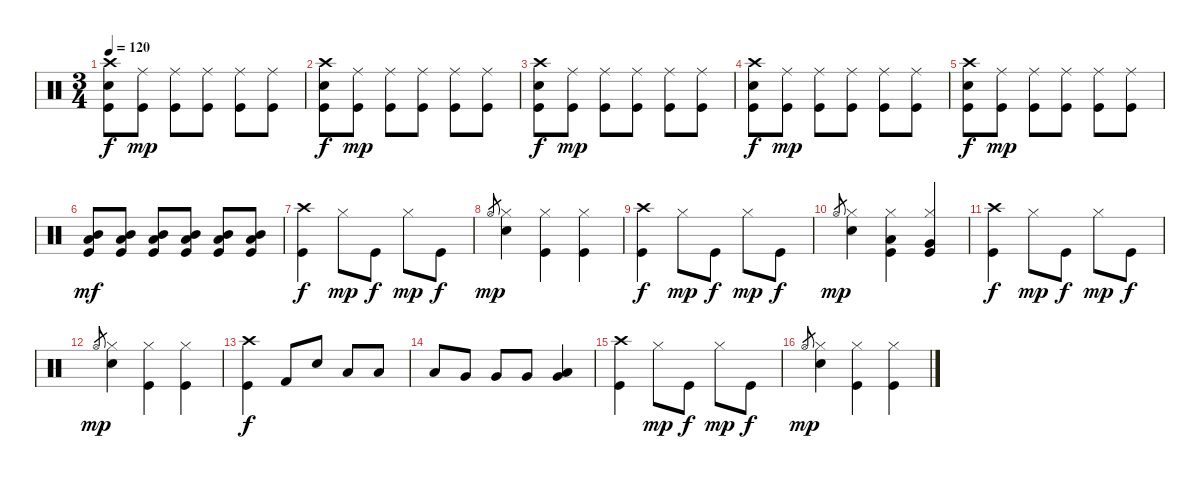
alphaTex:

\track "" {instrument percussion}
\staff {score}
\articulation defaults
\ts (3 4)
\tempo 120
\clef neutral
\ks c
("Kick (hit)" "Electric Snare (hit)" "Crash high (hit)").8{dy f} ("Kick (hit)" "Ride (middle)").8{dy mp} ("Kick (hit)" "Ride (middle)").8 ("Kick (hit)" "Ride (middle)").8 ("Kick (hit)" "Ride (middle)").8 ("Kick (hit)" "Ride (middle)").8 |
("Kick (hit)" "Electric Snare (hit)" "Crash high (hit)").8{dy f} ("Kick (hit)" "Ride (middle)").8{dy mp} ("Kick (hit)" "Ride (middle)").8 ("Kick (hit)" "Ride (middle)").8 ("Kick (hit)" "Ride (middle)").8 ("Kick (hit)" "Ride (middle)").8 |
("Kick (hit)" "Electric Snare (hit)" "Crash high (hit)").8{dy f} ("Kick (hit)" "Ride (middle)").8{dy mp} ("Kick (hit)" "Ride (middle)").8 ("Kick (hit)" "Ride (middle)").8 ("Kick (hit)" "Ride (middle)").8 ("Kick (hit)" "Ride (middle)").8 |
("Kick (hit)" "Electric Snare (hit)" "Crash high (hit)").8{dy f} ("Kick (hit)" "Ride (middle)").8{dy mp} ("Kick (hit)" "Ride (middle)").8 ("Kick (hit)" "Ride (middle)").8 ("Kick (hit)" "Ride (middle)").8 ("Kick (hit)" "Ride (middle)").8 |
("Kick (hit)" "Electric Snare (hit)" "Crash high (hit)").8{dy f} ("Kick (hit)" "Ride (middle)").8{dy mp} ("Kick (hit)" "Ride (middle)").8 ("Kick (hit)" "Ride (middle)").8 ("Kick (hit)" "Ride (middle)").8 ("Kick (hit)" "Ride (middle)").8 |
("Low Tom (hit)" "Mid Tom (hit)" "Kick (hit)").8{dy mf} ("Low Tom (hit)" "Mid Tom (hit)" "Kick (hit)").8 ("Low Tom (hit)" "Mid Tom (hit)" "Kick (hit)").8 ("Low Tom (hit)" "Mid Tom (hit)" "Kick (hit)").8 ("Low Tom (hit)" "Mid Tom (hit)" "Kick (hit)").8 ("Low Tom (hit)" "Mid Tom (hit)" "Kick (hit)").8 |
("Crash high (hit)" "Kick (hit)").4{dy f} "Hi-Hat (closed)".8{dy mp} "Kick (hit)".8{dy f} "Hi-Hat (closed)".8{dy mp} "Kick (hit)".8{dy f} |
"Hi-Hat (open)".8{gr dy mp} ("Hi-Hat (closed)" "Electric Snare (hit)").4 ("Hi-Hat (closed)" "Kick (hit)").4 ("Hi-Hat (closed)" "Kick (hit)").4 |
("Crash high (hit)" "Kick (hit)").4{dy f} "Hi-Hat (closed)".8{dy mp} "Kick (hit)".8{dy f} "Hi-Hat (closed)".8{dy mp} "Kick (hit)".8{dy f} |
"Hi-Hat (open)".8{gr dy mp} ("Hi-Hat (closed)" "Electric Snare (hit)").4 ("Hi-Hat (closed)" "Low Tom (hit)" "Kick (hit)").4 ("Hi-Hat (closed)" "Very Low Tom (hit)" "Kick (hit)").4 |
("Crash high (hit)" "Kick (hit)").4{dy f} "Hi-Hat (closed)".8{dy mp} "Kick (hit)".8{dy f} "Hi-Hat (closed)".8{dy mp} "Kick (hit)".8{dy f} |
"Hi-Hat (open)".8{gr dy mp} ("Hi-Hat (closed)" "Electric Snare (hit)").4 ("Hi-Hat (closed)" "Kick (hit)").4 ("Hi-Hat (closed)" "Kick (hit)").4 |
("Crash high (hit)" "Kick (hit)").4{dy f} "Kick (hit) 2".8 "Electric Snare (hit)".8 "Low Tom (hit)".8 "Low Tom (hit)".8 |
"Low Tom (hit)".8 "Very Low Tom (hit)".8 "Very Low Tom (hit)".8 "Very Low Tom (hit)".8 ("Very Low Tom (hit)" "Low Floor Tom (hit)").4 |
("Crash high (hit)" "Kick (hit)").4 "Hi-Hat (closed)".8{dy mp} "Kick (hit)".8{dy f} "Hi-Hat (closed)".8{dy mp} "Kick (hit)".8{dy f} |
"Hi-Hat (open)".8{gr dy mp} ("Hi-Hat (closed)" "Electric Snare (hit)").4 ("Hi-Hat (closed)" "Kick (hit)").4 ("Hi-Hat (closed)" "Kick (hit)").4
